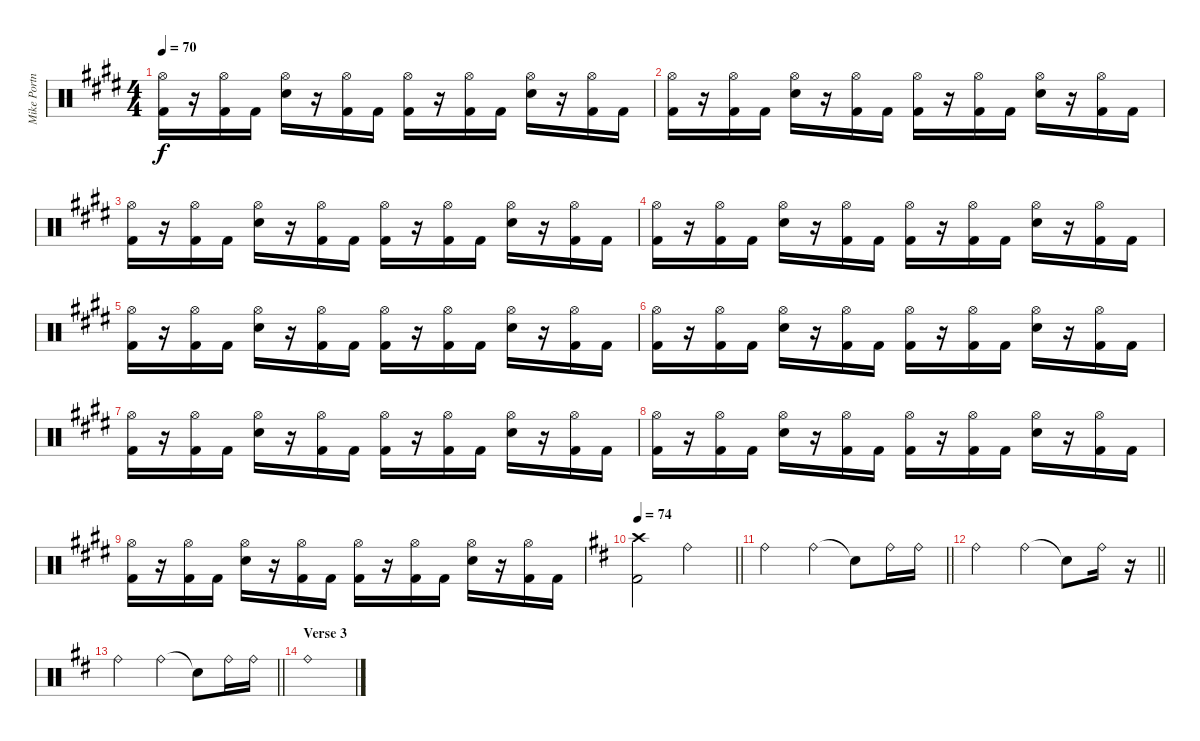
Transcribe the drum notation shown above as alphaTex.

\track ("Mike Portnoy" "Mike Portn") {instrument percussion}
\staff {score}
\articulation defaults
\ts (4 4)
\tempo 70
\clef neutral
\ks e
("Hi-Hat (open)" "Kick (hit) 2").16{dy f} r.16 ("Hi-Hat (open)" "Kick (hit) 2").16 "Kick (hit) 2".16 ("Hi-Hat (open)" "Snare (hit) 2").16 r.16 ("Hi-Hat (open)" "Kick (hit) 2").16 "Kick (hit) 2".16 ("Hi-Hat (open)" "Kick (hit) 2").16 r.16 ("Hi-Hat (open)" "Kick (hit) 2").16 "Kick (hit) 2".16 ("Hi-Hat (open)" "Snare (hit) 2").16 r.16 ("Hi-Hat (open)" "Kick (hit) 2").16 "Kick (hit) 2".16 |
("Hi-Hat (open)" "Kick (hit) 2").16 r.16 ("Hi-Hat (open)" "Kick (hit) 2").16 "Kick (hit) 2".16 ("Hi-Hat (open)" "Snare (hit) 2").16 r.16 ("Hi-Hat (open)" "Kick (hit) 2").16 "Kick (hit) 2".16 ("Hi-Hat (open)" "Kick (hit) 2").16 r.16 ("Hi-Hat (open)" "Kick (hit) 2").16 "Kick (hit) 2".16 ("Hi-Hat (open)" "Snare (hit) 2").16 r.16 ("Hi-Hat (open)" "Kick (hit) 2").16 "Kick (hit) 2".16 |
("Hi-Hat (open)" "Kick (hit) 2").16 r.16 ("Hi-Hat (open)" "Kick (hit) 2").16 "Kick (hit) 2".16 ("Hi-Hat (open)" "Snare (hit) 2").16 r.16 ("Hi-Hat (open)" "Kick (hit) 2").16 "Kick (hit) 2".16 ("Hi-Hat (open)" "Kick (hit) 2").16 r.16 ("Hi-Hat (open)" "Kick (hit) 2").16 "Kick (hit) 2".16 ("Hi-Hat (open)" "Snare (hit) 2").16 r.16 ("Hi-Hat (open)" "Kick (hit) 2").16 "Kick (hit) 2".16 |
("Hi-Hat (open)" "Kick (hit) 2").16 r.16 ("Hi-Hat (open)" "Kick (hit) 2").16 "Kick (hit) 2".16 ("Hi-Hat (open)" "Snare (hit) 2").16 r.16 ("Hi-Hat (open)" "Kick (hit) 2").16 "Kick (hit) 2".16 ("Hi-Hat (open)" "Kick (hit) 2").16 r.16 ("Hi-Hat (open)" "Kick (hit) 2").16 "Kick (hit) 2".16 ("Hi-Hat (open)" "Snare (hit) 2").16 r.16 ("Hi-Hat (open)" "Kick (hit) 2").16 "Kick (hit) 2".16 |
("Hi-Hat (open)" "Kick (hit) 2").16 r.16 ("Hi-Hat (open)" "Kick (hit) 2").16 "Kick (hit) 2".16 ("Hi-Hat (open)" "Snare (hit) 2").16 r.16 ("Hi-Hat (open)" "Kick (hit) 2").16 "Kick (hit) 2".16 ("Hi-Hat (open)" "Kick (hit) 2").16 r.16 ("Hi-Hat (open)" "Kick (hit) 2").16 "Kick (hit) 2".16 ("Hi-Hat (open)" "Snare (hit) 2").16 r.16 ("Hi-Hat (open)" "Kick (hit) 2").16 "Kick (hit) 2".16 |
("Hi-Hat (open)" "Kick (hit) 2").16 r.16 ("Hi-Hat (open)" "Kick (hit) 2").16 "Kick (hit) 2".16 ("Hi-Hat (open)" "Snare (hit) 2").16 r.16 ("Hi-Hat (open)" "Kick (hit) 2").16 "Kick (hit) 2".16 ("Hi-Hat (open)" "Kick (hit) 2").16 r.16 ("Hi-Hat (open)" "Kick (hit) 2").16 "Kick (hit) 2".16 ("Hi-Hat (open)" "Snare (hit) 2").16 r.16 ("Hi-Hat (open)" "Kick (hit) 2").16 "Kick (hit) 2".16 |
("Hi-Hat (open)" "Kick (hit) 2").16 r.16 ("Hi-Hat (open)" "Kick (hit) 2").16 "Kick (hit) 2".16 ("Hi-Hat (open)" "Snare (hit) 2").16 r.16 ("Hi-Hat (open)" "Kick (hit) 2").16 "Kick (hit) 2".16 ("Hi-Hat (open)" "Kick (hit) 2").16 r.16 ("Hi-Hat (open)" "Kick (hit) 2").16 "Kick (hit) 2".16 ("Hi-Hat (open)" "Snare (hit) 2").16 r.16 ("Hi-Hat (open)" "Kick (hit) 2").16 "Kick (hit) 2".16 |
("Hi-Hat (open)" "Kick (hit) 2").16 r.16 ("Hi-Hat (open)" "Kick (hit) 2").16 "Kick (hit) 2".16 ("Hi-Hat (open)" "Snare (hit) 2").16 r.16 ("Hi-Hat (open)" "Kick (hit) 2").16 "Kick (hit) 2".16 ("Hi-Hat (open)" "Kick (hit) 2").16 r.16 ("Hi-Hat (open)" "Kick (hit) 2").16 "Kick (hit) 2".16 ("Hi-Hat (open)" "Snare (hit) 2").16 r.16 ("Hi-Hat (open)" "Kick (hit) 2").16 "Kick (hit) 2".16 |
("Hi-Hat (open)" "Kick (hit) 2").16 r.16 ("Hi-Hat (open)" "Kick (hit) 2").16 "Kick (hit) 2".16 ("Hi-Hat (open)" "Snare (hit) 2").16 r.16 ("Hi-Hat (open)" "Kick (hit) 2").16 "Kick (hit) 2".16 ("Hi-Hat (open)" "Kick (hit) 2").16 r.16 ("Hi-Hat (open)" "Kick (hit) 2").16 "Kick (hit) 2".16 ("Hi-Hat (open)" "Snare (hit) 2").16 r.16 ("Hi-Hat (open)" "Kick (hit) 2").16 "Kick (hit) 2".16 |
\tempo 74
\barLineRight lightlight
\ks bminor
("Crash high (hit)" "Kick (hit) 2").2 "Ride (bell)".2 |
\barLineRight lightlight "Ride (bell)".2 "Ride (bell)".4 "Snare (hit)"{t}.8 "Ride (bell)".16 "Ride (bell)".16
|
\barLineRight lightlight "Ride (bell)".2 "Ride (bell)".4 "Snare (hit)"{t}.8 "Ride (bell)".16
r.16 |
\barLineRight lightlight "Ride (bell)".2 "Ride (bell)".4 "Snare (hit)"{t}.8 "Ride (bell)".16 "Ride (bell)".16
|
\section ("" "Verse 3")
"Ride (bell)".1
